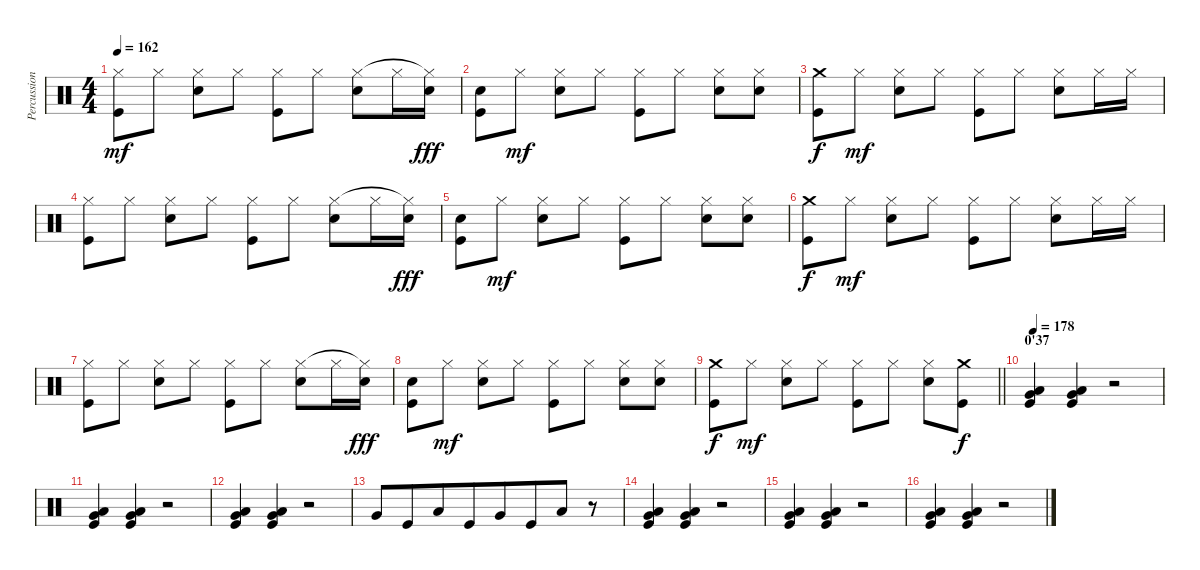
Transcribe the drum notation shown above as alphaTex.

\track ("Percussion" "Percussion") {instrument percussion}
\staff {score}
\articulation defaults
\ts (4 4)
\tempo 162
\clef neutral
\ks c
("Kick (hit)" "Hi-Hat (closed)").8{dy mf} "Hi-Hat (closed)".8 ("Electric Snare (hit)" "Hi-Hat (closed)").8 "Hi-Hat (closed)".8 ("Kick (hit)" "Hi-Hat (closed)").8 "Hi-Hat (closed)".8 ("Electric Snare (hit)" "Hi-Hat (closed)").8 "Hi-Hat (closed)".16 ("Electric Snare (hit)" "Hi-Hat (closed)"{t}).16{dy fff} |
("Electric Snare (hit)" "Kick (hit)").8 "Hi-Hat (closed)".8{dy mf} ("Electric Snare (hit)" "Hi-Hat (closed)").8 "Hi-Hat (closed)".8 ("Kick (hit)" "Hi-Hat (closed)").8 "Hi-Hat (closed)".8 ("Electric Snare (hit)" "Hi-Hat (closed)").8 ("Electric Snare (hit)" "Hi-Hat (closed)").8 |
("Kick (hit)" "Crash medium (hit)").8{dy f} "Hi-Hat (closed)".8{dy mf} ("Electric Snare (hit)" "Hi-Hat (closed)").8 "Hi-Hat (closed)".8 ("Kick (hit)" "Hi-Hat (closed)").8 "Hi-Hat (closed)".8 ("Electric Snare (hit)" "Hi-Hat (closed)").8 "Hi-Hat (closed)".16 "Hi-Hat (closed)".16 |
("Kick (hit)" "Hi-Hat (closed)").8 "Hi-Hat (closed)".8 ("Electric Snare (hit)" "Hi-Hat (closed)").8 "Hi-Hat (closed)".8 ("Kick (hit)" "Hi-Hat (closed)").8 "Hi-Hat (closed)".8 ("Electric Snare (hit)" "Hi-Hat (closed)").8 "Hi-Hat (closed)".16 ("Electric Snare (hit)" "Hi-Hat (closed)"{t}).16{dy fff} |
("Electric Snare (hit)" "Kick (hit)").8 "Hi-Hat (closed)".8{dy mf} ("Electric Snare (hit)" "Hi-Hat (closed)").8 "Hi-Hat (closed)".8 ("Kick (hit)" "Hi-Hat (closed)").8 "Hi-Hat (closed)".8 ("Electric Snare (hit)" "Hi-Hat (closed)").8 ("Electric Snare (hit)" "Hi-Hat (closed)").8 |
("Kick (hit)" "Crash medium (hit)").8{dy f} "Hi-Hat (closed)".8{dy mf} ("Electric Snare (hit)" "Hi-Hat (closed)").8 "Hi-Hat (closed)".8 ("Kick (hit)" "Hi-Hat (closed)").8 "Hi-Hat (closed)".8 ("Electric Snare (hit)" "Hi-Hat (closed)").8 "Hi-Hat (closed)".16 "Hi-Hat (closed)".16 |
("Kick (hit)" "Hi-Hat (closed)").8 "Hi-Hat (closed)".8 ("Electric Snare (hit)" "Hi-Hat (closed)").8 "Hi-Hat (closed)".8 ("Kick (hit)" "Hi-Hat (closed)").8 "Hi-Hat (closed)".8 ("Electric Snare (hit)" "Hi-Hat (closed)").8 "Hi-Hat (closed)".16 ("Electric Snare (hit)" "Hi-Hat (closed)"{t}).16{dy fff} |
("Electric Snare (hit)" "Kick (hit)").8 "Hi-Hat (closed)".8{dy mf} ("Electric Snare (hit)" "Hi-Hat (closed)").8 "Hi-Hat (closed)".8 ("Kick (hit)" "Hi-Hat (closed)").8 "Hi-Hat (closed)".8 ("Electric Snare (hit)" "Hi-Hat (closed)").8 ("Electric Snare (hit)" "Hi-Hat (closed)").8 |
\barLineRight lightlight
("Kick (hit)" "Crash medium (hit)").8{dy f} "Hi-Hat (closed)".8{dy mf} ("Electric Snare (hit)" "Hi-Hat (closed)").8 "Hi-Hat (closed)".8 ("Kick (hit)" "Hi-Hat (closed)").8 "Hi-Hat (closed)".8 ("Electric Snare (hit)" "Hi-Hat (closed)").8 ("Kick (hit)" "Crash medium (hit)").8{dy f} |
\section ("" "0'37")
\tempo 178
("Kick (hit)" "Low Floor Tom (hit)" "Very Low Tom (hit)").4 ("Kick (hit)" "Low Floor Tom (hit)" "Very Low Tom (hit)").4 r.2 |
("Kick (hit)" "Low Floor Tom (hit)" "Very Low Tom (hit)").4 ("Kick (hit)" "Low Floor Tom (hit)" "Very Low Tom (hit)").4 r.2 |
("Kick (hit)" "Low Floor Tom (hit)" "Very Low Tom (hit)").4 ("Kick (hit)" "Low Floor Tom (hit)" "Very Low Tom (hit)").4 r.2 |
"Very Low Tom (hit)".8 "Kick (hit)".8{beam merge} "Low Floor Tom (hit)".8 "Kick (hit)".8{beam merge} "Very Low Tom (hit)".8 "Kick (hit)".8{beam merge} "Low Floor Tom (hit)".8 r.8 |
("Kick (hit)" "Low Floor Tom (hit)" "Very Low Tom (hit)").4 ("Kick (hit)" "Low Floor Tom (hit)" "Very Low Tom (hit)").4 r.2 |
("Kick (hit)" "Low Floor Tom (hit)" "Very Low Tom (hit)").4 ("Kick (hit)" "Low Floor Tom (hit)" "Very Low Tom (hit)").4 r.2 |
("Kick (hit)" "Low Floor Tom (hit)" "Very Low Tom (hit)").4 ("Kick (hit)" "Low Floor Tom (hit)" "Very Low Tom (hit)").4 r.2
